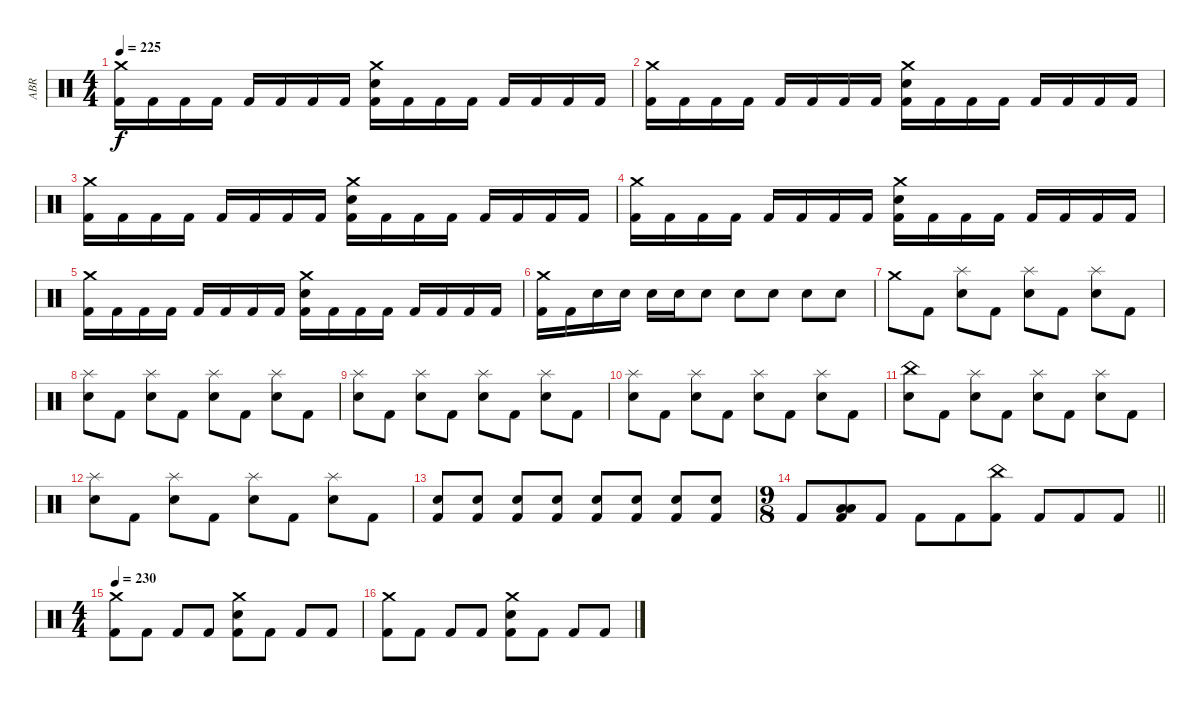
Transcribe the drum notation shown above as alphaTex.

\track ("ABR" "ABR") {instrument percussion}
\staff {score}
\articulation defaults
\ts (4 4)
\tempo 225
\clef neutral
\ks c
("Crash medium (hit)" "Kick (hit) 2").16{dy f} "Kick (hit) 2".16 "Kick (hit) 2".16 "Kick (hit) 2".16 "Kick (hit) 2".16 "Kick (hit) 2".16 "Kick (hit) 2".16 "Kick (hit) 2".16 ("Crash medium (hit)" "Snare (hit) 2" "Kick (hit) 2").16 "Kick (hit) 2".16 "Kick (hit) 2".16 "Kick (hit) 2".16 "Kick (hit) 2".16 "Kick (hit) 2".16 "Kick (hit) 2".16 "Kick (hit) 2".16 |
("Crash medium (hit)" "Kick (hit) 2").16 "Kick (hit) 2".16 "Kick (hit) 2".16 "Kick (hit) 2".16 "Kick (hit) 2".16 "Kick (hit) 2".16 "Kick (hit) 2".16 "Kick (hit) 2".16 ("Crash medium (hit)" "Snare (hit) 2" "Kick (hit) 2").16 "Kick (hit) 2".16 "Kick (hit) 2".16 "Kick (hit) 2".16 "Kick (hit) 2".16 "Kick (hit) 2".16 "Kick (hit) 2".16 "Kick (hit) 2".16 |
("Crash medium (hit)" "Kick (hit) 2").16 "Kick (hit) 2".16 "Kick (hit) 2".16 "Kick (hit) 2".16 "Kick (hit) 2".16 "Kick (hit) 2".16 "Kick (hit) 2".16 "Kick (hit) 2".16 ("Crash medium (hit)" "Snare (hit) 2" "Kick (hit) 2").16 "Kick (hit) 2".16 "Kick (hit) 2".16 "Kick (hit) 2".16 "Kick (hit) 2".16 "Kick (hit) 2".16 "Kick (hit) 2".16 "Kick (hit) 2".16 |
("Crash medium (hit)" "Kick (hit) 2").16 "Kick (hit) 2".16 "Kick (hit) 2".16 "Kick (hit) 2".16 "Kick (hit) 2".16 "Kick (hit) 2".16 "Kick (hit) 2".16 "Kick (hit) 2".16 ("Crash medium (hit)" "Snare (hit) 2" "Kick (hit) 2").16 "Kick (hit) 2".16 "Kick (hit) 2".16 "Kick (hit) 2".16 "Kick (hit) 2".16 "Kick (hit) 2".16 "Kick (hit) 2".16 "Kick (hit) 2".16 |
("Crash medium (hit)" "Kick (hit) 2").16 "Kick (hit) 2".16 "Kick (hit) 2".16 "Kick (hit) 2".16 "Kick (hit) 2".16 "Kick (hit) 2".16 "Kick (hit) 2".16 "Kick (hit) 2".16 ("Crash medium (hit)" "Snare (hit) 2" "Kick (hit) 2").16 "Kick (hit) 2".16 "Kick (hit) 2".16 "Kick (hit) 2".16 "Kick (hit) 2".16 "Kick (hit) 2".16 "Kick (hit) 2".16 "Kick (hit) 2".16 |
("Crash medium (hit)" "Kick (hit) 2").16 "Kick (hit) 2".16 "Snare (hit) 2".16 "Snare (hit) 2".16 "Snare (hit) 2".16 "Snare (hit) 2".16 "Snare (hit) 2".8 "Snare (hit) 2".8 "Snare (hit) 2".8 "Snare (hit) 2".8 "Snare (hit) 2".8 |
"Crash medium (hit)".8 "Kick (hit) 2".8 ("Splash (hit)" "Snare (hit) 2").8 "Kick (hit) 2".8 ("Splash (hit)" "Snare (hit) 2").8 "Kick (hit) 2".8 ("Splash (hit)" "Snare (hit) 2").8 "Kick (hit) 2".8 |
("Splash (hit)" "Snare (hit) 2").8 "Kick (hit) 2".8 ("Splash (hit)" "Snare (hit) 2").8 "Kick (hit) 2".8 ("Splash (hit)" "Snare (hit) 2").8 "Kick (hit) 2".8 ("Splash (hit)" "Snare (hit) 2").8 "Kick (hit) 2".8 |
("Splash (hit)" "Snare (hit) 2").8 "Kick (hit) 2".8 ("Splash (hit)" "Snare (hit) 2").8 "Kick (hit) 2".8 ("Splash (hit)" "Snare (hit) 2").8 "Kick (hit) 2".8 ("Splash (hit)" "Snare (hit) 2").8 "Kick (hit) 2".8 |
("Splash (hit)" "Snare (hit) 2").8 "Kick (hit) 2".8 ("Splash (hit)" "Snare (hit) 2").8 "Kick (hit) 2".8 ("Splash (hit)" "Snare (hit) 2").8 "Kick (hit) 2".8 ("Splash (hit)" "Snare (hit) 2").8 "Kick (hit) 2".8 |
("China (hit)" "Snare (hit) 2").8 "Kick (hit) 2".8 ("Splash (hit)" "Snare (hit) 2").8 "Kick (hit) 2".8 ("Splash (hit)" "Snare (hit) 2").8 "Kick (hit) 2".8 ("Splash (hit)" "Snare (hit) 2").8 "Kick (hit) 2".8 |
("Splash (hit)" "Snare (hit) 2").8 "Kick (hit) 2".8 ("Splash (hit)" "Snare (hit) 2").8 "Kick (hit) 2".8 ("Splash (hit)" "Snare (hit) 2").8 "Kick (hit) 2".8 ("Splash (hit)" "Snare (hit) 2").8 "Kick (hit) 2".8 |
("Snare (hit) 2" "Kick (hit) 2").8 ("Snare (hit) 2" "Kick (hit) 2").8 ("Snare (hit) 2" "Kick (hit) 2").8 ("Snare (hit) 2" "Kick (hit) 2").8 ("Snare (hit) 2" "Kick (hit) 2").8 ("Snare (hit) 2" "Kick (hit) 2").8 ("Snare (hit) 2" "Kick (hit) 2").8 ("Snare (hit) 2" "Kick (hit) 2").8 |
\ts (9 8)
\barLineRight lightlight "Kick (hit) 2".8
("Low Tom (hit)" "Low Floor Tom (hit)" "Kick (hit) 2").8 "Kick (hit) 2".8 "Kick (hit) 2".8 "Kick (hit) 2".8 ("China (hit)" "Kick (hit) 2").8 "Kick (hit) 2".8 "Kick (hit) 2".8 "Kick (hit) 2".8 |
\ts (4 4)
\tempo 230
("Crash medium (hit)" "Kick (hit) 2").8 "Kick (hit) 2".8 "Kick (hit) 2".8 "Kick (hit) 2".8 ("Crash medium (hit)" "Snare (hit) 2" "Kick (hit) 2").8 "Kick (hit) 2".8 "Kick (hit) 2".8 "Kick (hit) 2".8 |
("Crash medium (hit)" "Kick (hit) 2").8 "Kick (hit) 2".8 "Kick (hit) 2".8 "Kick (hit) 2".8 ("Crash medium (hit)" "Snare (hit) 2" "Kick (hit) 2").8 "Kick (hit) 2".8 "Kick (hit) 2".8 "Kick (hit) 2".8
